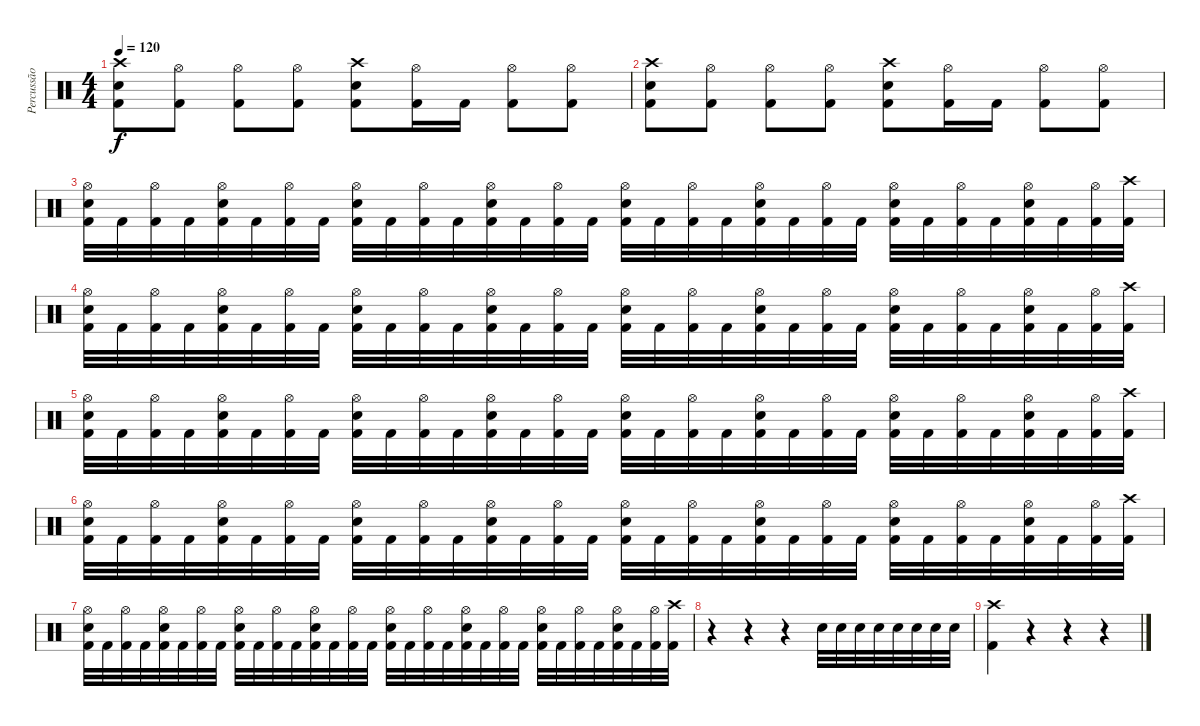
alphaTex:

\track ("Percussão" "Percussão") {instrument percussion}
\staff {score}
\articulation defaults
\ts (4 4)
\tempo 120
\clef neutral
\ks c
("Crash high (hit)" "Snare (hit) 2" "Kick (hit) 2").8{dy f} ("Hi-Hat (open)" "Kick (hit) 2").8 ("Hi-Hat (open)" "Kick (hit) 2").8 ("Hi-Hat (open)" "Kick (hit) 2").8 ("Crash high (hit)" "Snare (hit) 2" "Kick (hit) 2").8 ("Hi-Hat (open)" "Kick (hit) 2").16 "Kick (hit) 2".16 ("Hi-Hat (open)" "Kick (hit) 2").8 ("Hi-Hat (open)" "Kick (hit) 2").8 |
("Crash high (hit)" "Snare (hit) 2" "Kick (hit) 2").8 ("Hi-Hat (open)" "Kick (hit) 2").8 ("Hi-Hat (open)" "Kick (hit) 2").8 ("Hi-Hat (open)" "Kick (hit) 2").8 ("Crash high (hit)" "Snare (hit) 2" "Kick (hit) 2").8 ("Hi-Hat (open)" "Kick (hit) 2").16 "Kick (hit) 2".16 ("Hi-Hat (open)" "Kick (hit) 2").8 ("Hi-Hat (open)" "Kick (hit) 2").8 |
("Hi-Hat (open)" "Snare (hit) 2" "Kick (hit) 2").32 "Kick (hit) 2".32 ("Hi-Hat (open)" "Kick (hit) 2").32 "Kick (hit) 2".32 ("Hi-Hat (open)" "Snare (hit) 2" "Kick (hit) 2").32 "Kick (hit) 2".32 ("Hi-Hat (open)" "Kick (hit) 2").32 "Kick (hit) 2".32 ("Hi-Hat (open)" "Snare (hit) 2" "Kick (hit) 2").32 "Kick (hit) 2".32 ("Hi-Hat (open)" "Kick (hit) 2").32 "Kick (hit) 2".32 ("Hi-Hat (open)" "Snare (hit) 2" "Kick (hit) 2").32 "Kick (hit) 2".32 ("Hi-Hat (open)" "Kick (hit) 2").32 "Kick (hit) 2".32 ("Hi-Hat (open)" "Snare (hit) 2" "Kick (hit) 2").32 "Kick (hit) 2".32 ("Hi-Hat (open)" "Kick (hit) 2").32 "Kick (hit) 2".32 ("Hi-Hat (open)" "Snare (hit) 2" "Kick (hit) 2").32 "Kick (hit) 2".32 ("Hi-Hat (open)" "Kick (hit) 2").32 "Kick (hit) 2".32 ("Hi-Hat (open)" "Snare (hit) 2" "Kick (hit) 2").32 "Kick (hit) 2".32 ("Hi-Hat (open)" "Kick (hit) 2").32 "Kick (hit) 2".32 ("Hi-Hat (open)" "Snare (hit) 2" "Kick (hit) 2").32 "Kick (hit) 2".32 ("Hi-Hat (open)" "Kick (hit) 2").32 ("Crash high (hit)" "Kick (hit) 2").32 |
("Hi-Hat (open)" "Snare (hit) 2" "Kick (hit) 2").32 "Kick (hit) 2".32 ("Hi-Hat (open)" "Kick (hit) 2").32 "Kick (hit) 2".32 ("Hi-Hat (open)" "Snare (hit) 2" "Kick (hit) 2").32 "Kick (hit) 2".32 ("Hi-Hat (open)" "Kick (hit) 2").32 "Kick (hit) 2".32 ("Hi-Hat (open)" "Snare (hit) 2" "Kick (hit) 2").32 "Kick (hit) 2".32 ("Hi-Hat (open)" "Kick (hit) 2").32 "Kick (hit) 2".32 ("Hi-Hat (open)" "Snare (hit) 2" "Kick (hit) 2").32 "Kick (hit) 2".32 ("Hi-Hat (open)" "Kick (hit) 2").32 "Kick (hit) 2".32 ("Hi-Hat (open)" "Snare (hit) 2" "Kick (hit) 2").32 "Kick (hit) 2".32 ("Hi-Hat (open)" "Kick (hit) 2").32 "Kick (hit) 2".32 ("Hi-Hat (open)" "Snare (hit) 2" "Kick (hit) 2").32 "Kick (hit) 2".32 ("Hi-Hat (open)" "Kick (hit) 2").32 "Kick (hit) 2".32 ("Hi-Hat (open)" "Snare (hit) 2" "Kick (hit) 2").32 "Kick (hit) 2".32 ("Hi-Hat (open)" "Kick (hit) 2").32 "Kick (hit) 2".32 ("Hi-Hat (open)" "Snare (hit) 2" "Kick (hit) 2").32 "Kick (hit) 2".32 ("Hi-Hat (open)" "Kick (hit) 2").32 ("Crash high (hit)" "Kick (hit) 2").32 |
("Hi-Hat (open)" "Snare (hit) 2" "Kick (hit) 2").32 "Kick (hit) 2".32 ("Hi-Hat (open)" "Kick (hit) 2").32 "Kick (hit) 2".32 ("Hi-Hat (open)" "Snare (hit) 2" "Kick (hit) 2").32 "Kick (hit) 2".32 ("Hi-Hat (open)" "Kick (hit) 2").32 "Kick (hit) 2".32 ("Hi-Hat (open)" "Snare (hit) 2" "Kick (hit) 2").32 "Kick (hit) 2".32 ("Hi-Hat (open)" "Kick (hit) 2").32 "Kick (hit) 2".32 ("Hi-Hat (open)" "Snare (hit) 2" "Kick (hit) 2").32 "Kick (hit) 2".32 ("Hi-Hat (open)" "Kick (hit) 2").32 "Kick (hit) 2".32 ("Hi-Hat (open)" "Snare (hit) 2" "Kick (hit) 2").32 "Kick (hit) 2".32 ("Hi-Hat (open)" "Kick (hit) 2").32 "Kick (hit) 2".32 ("Hi-Hat (open)" "Snare (hit) 2" "Kick (hit) 2").32 "Kick (hit) 2".32 ("Hi-Hat (open)" "Kick (hit) 2").32 "Kick (hit) 2".32 ("Hi-Hat (open)" "Snare (hit) 2" "Kick (hit) 2").32 "Kick (hit) 2".32 ("Hi-Hat (open)" "Kick (hit) 2").32 "Kick (hit) 2".32 ("Hi-Hat (open)" "Snare (hit) 2" "Kick (hit) 2").32 "Kick (hit) 2".32 ("Hi-Hat (open)" "Kick (hit) 2").32 ("Crash high (hit)" "Kick (hit) 2").32 |
("Hi-Hat (open)" "Snare (hit) 2" "Kick (hit) 2").32 "Kick (hit) 2".32 ("Hi-Hat (open)" "Kick (hit) 2").32 "Kick (hit) 2".32 ("Hi-Hat (open)" "Snare (hit) 2" "Kick (hit) 2").32 "Kick (hit) 2".32 ("Hi-Hat (open)" "Kick (hit) 2").32 "Kick (hit) 2".32 ("Hi-Hat (open)" "Snare (hit) 2" "Kick (hit) 2").32 "Kick (hit) 2".32 ("Hi-Hat (open)" "Kick (hit) 2").32 "Kick (hit) 2".32 ("Hi-Hat (open)" "Snare (hit) 2" "Kick (hit) 2").32 "Kick (hit) 2".32 ("Hi-Hat (open)" "Kick (hit) 2").32 "Kick (hit) 2".32 ("Hi-Hat (open)" "Snare (hit) 2" "Kick (hit) 2").32 "Kick (hit) 2".32 ("Hi-Hat (open)" "Kick (hit) 2").32 "Kick (hit) 2".32 ("Hi-Hat (open)" "Snare (hit) 2" "Kick (hit) 2").32 "Kick (hit) 2".32 ("Hi-Hat (open)" "Kick (hit) 2").32 "Kick (hit) 2".32 ("Hi-Hat (open)" "Snare (hit) 2" "Kick (hit) 2").32 "Kick (hit) 2".32 ("Hi-Hat (open)" "Kick (hit) 2").32 "Kick (hit) 2".32 ("Hi-Hat (open)" "Snare (hit) 2" "Kick (hit) 2").32 "Kick (hit) 2".32 ("Hi-Hat (open)" "Kick (hit) 2").32 ("Crash high (hit)" "Kick (hit) 2").32 |
("Hi-Hat (open)" "Snare (hit) 2" "Kick (hit) 2").32 "Kick (hit) 2".32 ("Hi-Hat (open)" "Kick (hit) 2").32 "Kick (hit) 2".32 ("Hi-Hat (open)" "Snare (hit) 2" "Kick (hit) 2").32 "Kick (hit) 2".32 ("Hi-Hat (open)" "Kick (hit) 2").32 "Kick (hit) 2".32 ("Hi-Hat (open)" "Snare (hit) 2" "Kick (hit) 2").32 "Kick (hit) 2".32 ("Hi-Hat (open)" "Kick (hit) 2").32 "Kick (hit) 2".32 ("Hi-Hat (open)" "Snare (hit) 2" "Kick (hit) 2").32 "Kick (hit) 2".32 ("Hi-Hat (open)" "Kick (hit) 2").32 "Kick (hit) 2".32 ("Hi-Hat (open)" "Snare (hit) 2" "Kick (hit) 2").32 "Kick (hit) 2".32 ("Hi-Hat (open)" "Kick (hit) 2").32 "Kick (hit) 2".32 ("Hi-Hat (open)" "Snare (hit) 2" "Kick (hit) 2").32 "Kick (hit) 2".32 ("Hi-Hat (open)" "Kick (hit) 2").32 "Kick (hit) 2".32 ("Hi-Hat (open)" "Snare (hit) 2" "Kick (hit) 2").32 "Kick (hit) 2".32 ("Hi-Hat (open)" "Kick (hit) 2").32 "Kick (hit) 2".32 ("Hi-Hat (open)" "Snare (hit) 2" "Kick (hit) 2").32 "Kick (hit) 2".32 ("Hi-Hat (open)" "Kick (hit) 2").32 ("Crash high (hit)" "Kick (hit) 2").32 |
r.4 r.4 r.4 "Snare (hit) 2".32 "Snare (hit) 2".32 "Snare (hit) 2".32 "Snare (hit) 2".32 "Snare (hit) 2".32 "Snare (hit) 2".32 "Snare (hit) 2".32 "Snare (hit) 2".32 |
("Crash high (hit)" "Kick (hit) 2").4 r.4 r.4 r.4
